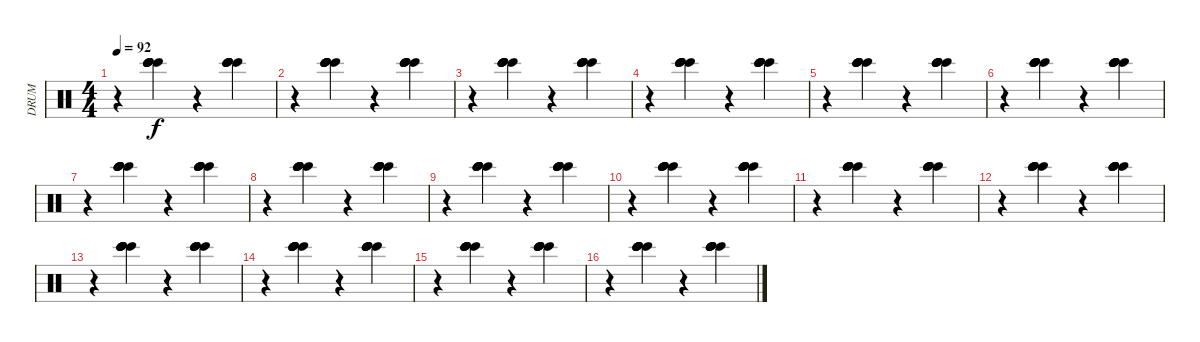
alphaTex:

\track ("DRUM" "DRUM") {instrument percussion}
\staff {score}
\articulation defaults
\ts (4 4)
\tempo 92
\clef neutral
\ks c
r.4{dy f volume 16} ("Bongo High (hit)" "Bongo High (hit)" "Bongo High (hit)" "Bongo High (hit)" "Bongo High (hit)").4{volume 16} r.4{volume 16} ("Bongo High (hit)" "Bongo High (hit)" "Bongo High (hit)" "Bongo High (hit)" "Bongo High (hit)").4{volume 16} |
r.4{volume 16} ("Bongo High (hit)" "Bongo High (hit)" "Bongo High (hit)" "Bongo High (hit)" "Bongo High (hit)").4{volume 16} r.4{volume 16} ("Bongo High (hit)" "Bongo High (hit)" "Bongo High (hit)" "Bongo High (hit)" "Bongo High (hit)").4{volume 16} |
r.4{volume 16} ("Bongo High (hit)" "Bongo High (hit)" "Bongo High (hit)" "Bongo High (hit)" "Bongo High (hit)").4{volume 16} r.4{volume 16} ("Bongo High (hit)" "Bongo High (hit)" "Bongo High (hit)" "Bongo High (hit)" "Bongo High (hit)").4{volume 16} |
r.4{volume 16} ("Bongo High (hit)" "Bongo High (hit)" "Bongo High (hit)" "Bongo High (hit)" "Bongo High (hit)").4{volume 16} r.4{volume 16} ("Bongo High (hit)" "Bongo High (hit)" "Bongo High (hit)" "Bongo High (hit)" "Bongo High (hit)").4{volume 16} |
r.4{volume 16} ("Bongo High (hit)" "Bongo High (hit)" "Bongo High (hit)" "Bongo High (hit)" "Bongo High (hit)").4{volume 16} r.4{volume 16} ("Bongo High (hit)" "Bongo High (hit)" "Bongo High (hit)" "Bongo High (hit)" "Bongo High (hit)").4{volume 16} |
r.4{volume 16} ("Bongo High (hit)" "Bongo High (hit)" "Bongo High (hit)" "Bongo High (hit)" "Bongo High (hit)").4{volume 16} r.4{volume 16} ("Bongo High (hit)" "Bongo High (hit)" "Bongo High (hit)" "Bongo High (hit)" "Bongo High (hit)").4{volume 16} |
r.4{volume 16} ("Bongo High (hit)" "Bongo High (hit)" "Bongo High (hit)" "Bongo High (hit)" "Bongo High (hit)").4{volume 16} r.4{volume 16} ("Bongo High (hit)" "Bongo High (hit)" "Bongo High (hit)" "Bongo High (hit)" "Bongo High (hit)").4{volume 16} |
r.4{volume 16} ("Bongo High (hit)" "Bongo High (hit)" "Bongo High (hit)" "Bongo High (hit)" "Bongo High (hit)").4{volume 16} r.4{volume 16} ("Bongo High (hit)" "Bongo High (hit)" "Bongo High (hit)" "Bongo High (hit)" "Bongo High (hit)").4{volume 16} |
r.4{volume 16} ("Bongo High (hit)" "Bongo High (hit)" "Bongo High (hit)" "Bongo High (hit)" "Bongo High (hit)").4{volume 16} r.4{volume 16} ("Bongo High (hit)" "Bongo High (hit)" "Bongo High (hit)" "Bongo High (hit)" "Bongo High (hit)").4{volume 16} |
r.4{volume 16} ("Bongo High (hit)" "Bongo High (hit)" "Bongo High (hit)" "Bongo High (hit)" "Bongo High (hit)").4{volume 16} r.4{volume 16} ("Bongo High (hit)" "Bongo High (hit)" "Bongo High (hit)" "Bongo High (hit)" "Bongo High (hit)").4{volume 16} |
r.4{volume 16} ("Bongo High (hit)" "Bongo High (hit)" "Bongo High (hit)" "Bongo High (hit)" "Bongo High (hit)").4{volume 16} r.4{volume 16} ("Bongo High (hit)" "Bongo High (hit)" "Bongo High (hit)" "Bongo High (hit)" "Bongo High (hit)").4{volume 16} |
r.4{volume 16} ("Bongo High (hit)" "Bongo High (hit)" "Bongo High (hit)" "Bongo High (hit)" "Bongo High (hit)").4{volume 16} r.4{volume 16} ("Bongo High (hit)" "Bongo High (hit)" "Bongo High (hit)" "Bongo High (hit)" "Bongo High (hit)").4{volume 16} |
r.4{volume 16} ("Bongo High (hit)" "Bongo High (hit)" "Bongo High (hit)" "Bongo High (hit)" "Bongo High (hit)").4{volume 16} r.4{volume 16} ("Bongo High (hit)" "Bongo High (hit)" "Bongo High (hit)" "Bongo High (hit)" "Bongo High (hit)").4{volume 16} |
r.4{volume 16} ("Bongo High (hit)" "Bongo High (hit)" "Bongo High (hit)" "Bongo High (hit)" "Bongo High (hit)").4{volume 16} r.4{volume 16} ("Bongo High (hit)" "Bongo High (hit)" "Bongo High (hit)" "Bongo High (hit)" "Bongo High (hit)").4{volume 16} |
r.4{volume 16} ("Bongo High (hit)" "Bongo High (hit)" "Bongo High (hit)" "Bongo High (hit)" "Bongo High (hit)").4{volume 16} r.4{volume 16} ("Bongo High (hit)" "Bongo High (hit)" "Bongo High (hit)" "Bongo High (hit)" "Bongo High (hit)").4{volume 16} |
r.4{volume 16} ("Bongo High (hit)" "Bongo High (hit)" "Bongo High (hit)" "Bongo High (hit)" "Bongo High (hit)").4{volume 16} r.4{volume 16} ("Bongo High (hit)" "Bongo High (hit)" "Bongo High (hit)" "Bongo High (hit)" "Bongo High (hit)").4{volume 16}
